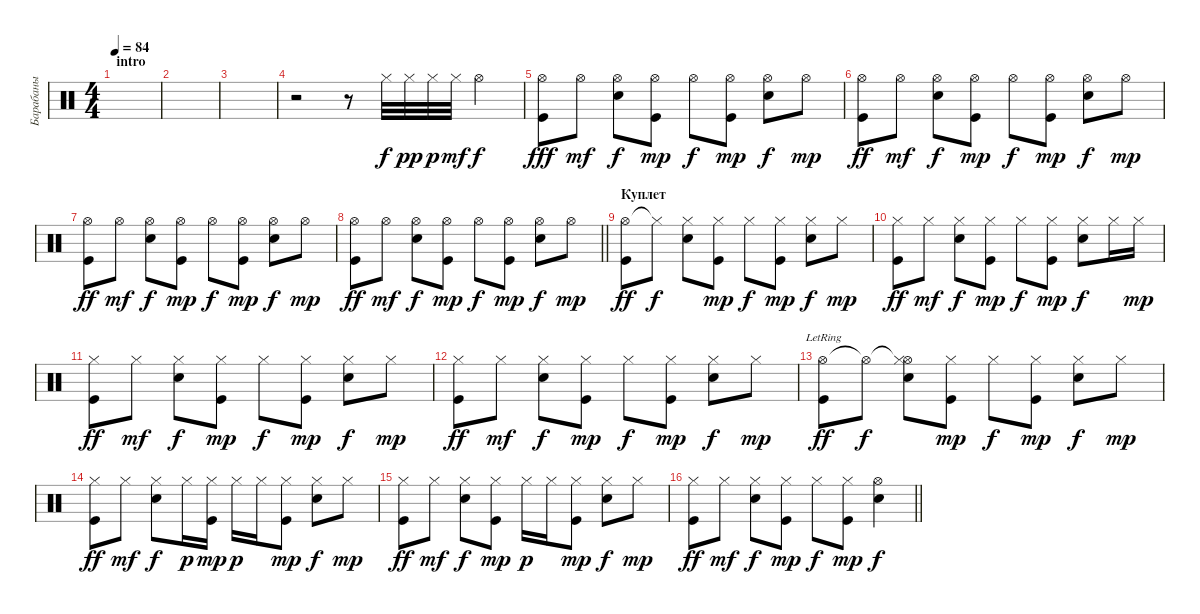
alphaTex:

\track ("Барабаны" "Барабаны") {instrument percussion}
\staff {score}
\articulation defaults
\ts (4 4)
\section ("" "intro")
\tempo 84
\clef neutral
\ks c
|
|
|
r.2 r.8 "Hi-Hat (closed)".32 "Hi-Hat (closed)".32{dy pp} "Hi-Hat (closed)".32{dy p} "Hi-Hat (closed)".32{dy mf} "Hi-Hat (open)".4{dy f} |
("Hi-Hat (open)" "Kick (hit)").8{dy fff} "Hi-Hat (open)".8{dy mf} ("Hi-Hat (open)" "Electric Snare (hit)").8{dy f} ("Hi-Hat (open)" "Kick (hit)").8{dy mp} "Hi-Hat (open)".8{dy f} ("Hi-Hat (open)" "Kick (hit)").8{dy mp} ("Hi-Hat (open)" "Electric Snare (hit)").8{dy f} "Hi-Hat (open)".8{dy mp} |
("Hi-Hat (open)" "Kick (hit)").8{dy ff} "Hi-Hat (open)".8{dy mf} ("Hi-Hat (open)" "Electric Snare (hit)").8{dy f} ("Hi-Hat (open)" "Kick (hit)").8{dy mp} "Hi-Hat (open)".8{dy f} ("Hi-Hat (open)" "Kick (hit)").8{dy mp} ("Hi-Hat (open)" "Electric Snare (hit)").8{dy f} "Hi-Hat (open)".8{dy mp} |
("Hi-Hat (open)" "Kick (hit)").8{dy ff} "Hi-Hat (open)".8{dy mf} ("Hi-Hat (open)" "Electric Snare (hit)").8{dy f} ("Hi-Hat (open)" "Kick (hit)").8{dy mp} "Hi-Hat (open)".8{dy f} ("Hi-Hat (open)" "Kick (hit)").8{dy mp} ("Hi-Hat (open)" "Electric Snare (hit)").8{dy f} "Hi-Hat (open)".8{dy mp} |
\barLineRight lightlight
("Hi-Hat (open)" "Kick (hit)").8{dy ff} "Hi-Hat (open)".8{dy mf} ("Hi-Hat (open)" "Electric Snare (hit)").8{dy f} ("Hi-Hat (open)" "Kick (hit)").8{dy mp} "Hi-Hat (open)".8{dy f} ("Hi-Hat (open)" "Kick (hit)").8{dy mp} ("Hi-Hat (open)" "Electric Snare (hit)").8{dy f} "Hi-Hat (open)".8{dy mp} |
\section ("" "Куплет")
("Hi-Hat (open)" "Kick (hit)").8{dy ff} "Hi-Hat (closed)"{t}.8{dy f} ("Hi-Hat (closed)" "Electric Snare (hit)").8 ("Hi-Hat (closed)" "Kick (hit)").8{dy mp} "Hi-Hat (closed)".8{dy f} ("Hi-Hat (closed)" "Kick (hit)").8{dy mp} ("Hi-Hat (closed)" "Electric Snare (hit)").8{dy f} "Hi-Hat (closed)".8{dy mp} |
("Hi-Hat (closed)" "Kick (hit)").8{dy ff} "Hi-Hat (closed)".8{dy mf} ("Hi-Hat (closed)" "Electric Snare (hit)").8{dy f} ("Hi-Hat (closed)" "Kick (hit)").8{dy mp} "Hi-Hat (closed)".8{dy f} ("Hi-Hat (closed)" "Kick (hit)").8{dy mp} ("Hi-Hat (closed)" "Electric Snare (hit)").8{dy f} "Hi-Hat (closed)".16 "Hi-Hat (closed)".16{dy mp} |
("Hi-Hat (closed)" "Kick (hit)").8{dy ff} "Hi-Hat (closed)".8{dy mf} ("Hi-Hat (closed)" "Electric Snare (hit)").8{dy f} ("Hi-Hat (closed)" "Kick (hit)").8{dy mp} "Hi-Hat (closed)".8{dy f} ("Hi-Hat (closed)" "Kick (hit)").8{dy mp} ("Hi-Hat (closed)" "Electric Snare (hit)").8{dy f} "Hi-Hat (closed)".8{dy mp} |
("Hi-Hat (closed)" "Kick (hit)").8{dy ff} "Hi-Hat (closed)".8{dy mf} ("Hi-Hat (closed)" "Electric Snare (hit)").8{dy f} ("Hi-Hat (closed)" "Kick (hit)").8{dy mp} "Hi-Hat (closed)".8{dy f} ("Hi-Hat (closed)" "Kick (hit)").8{dy mp} ("Hi-Hat (closed)" "Electric Snare (hit)").8{dy f} "Hi-Hat (closed)".8{dy mp} |
("Hi-Hat (open)"{lr} "Kick (hit)").8{dy ff} "Hi-Hat (open)"{t}.8{dy f} ("Hi-Hat (open)"{t} "Hi-Hat (closed)" "Electric Snare (hit)").8 ("Hi-Hat (closed)" "Kick (hit)").8{dy mp} "Hi-Hat (closed)".8{dy f} ("Hi-Hat (closed)" "Kick (hit)").8{dy mp} ("Hi-Hat (closed)" "Electric Snare (hit)").8{dy f} "Hi-Hat (closed)".8{dy mp} |
("Hi-Hat (closed)" "Kick (hit)").8{dy ff} "Hi-Hat (closed)".8{dy mf} ("Hi-Hat (closed)" "Electric Snare (hit)").8{dy f} "Hi-Hat (closed)".16{dy p} ("Hi-Hat (closed)" "Kick (hit)").16{dy mp} "Hi-Hat (closed)".16{dy p} "Hi-Hat (closed)".16 ("Hi-Hat (closed)" "Kick (hit)").8{dy mp} ("Hi-Hat (closed)" "Electric Snare (hit)").8{dy f} "Hi-Hat (closed)".8{dy mp} |
("Hi-Hat (closed)" "Kick (hit)").8{dy ff} "Hi-Hat (closed)".8{dy mf} ("Hi-Hat (closed)" "Electric Snare (hit)").8{dy f} ("Hi-Hat (closed)" "Kick (hit)").8{dy mp} "Hi-Hat (closed)".16{dy p} "Hi-Hat (closed)".16 ("Hi-Hat (closed)" "Kick (hit)").8{dy mp} ("Hi-Hat (closed)" "Electric Snare (hit)").8{dy f} "Hi-Hat (closed)".8{dy mp} |
\barLineRight lightlight
("Hi-Hat (closed)" "Kick (hit)").8{dy ff} "Hi-Hat (closed)".8{dy mf} ("Hi-Hat (closed)" "Electric Snare (hit)").8{dy f} ("Hi-Hat (closed)" "Kick (hit)").8{dy mp} "Hi-Hat (closed)".8{dy f} ("Hi-Hat (closed)" "Kick (hit)").8{dy mp} ("Hi-Hat (open)" "Electric Snare (hit)").4{dy f}
